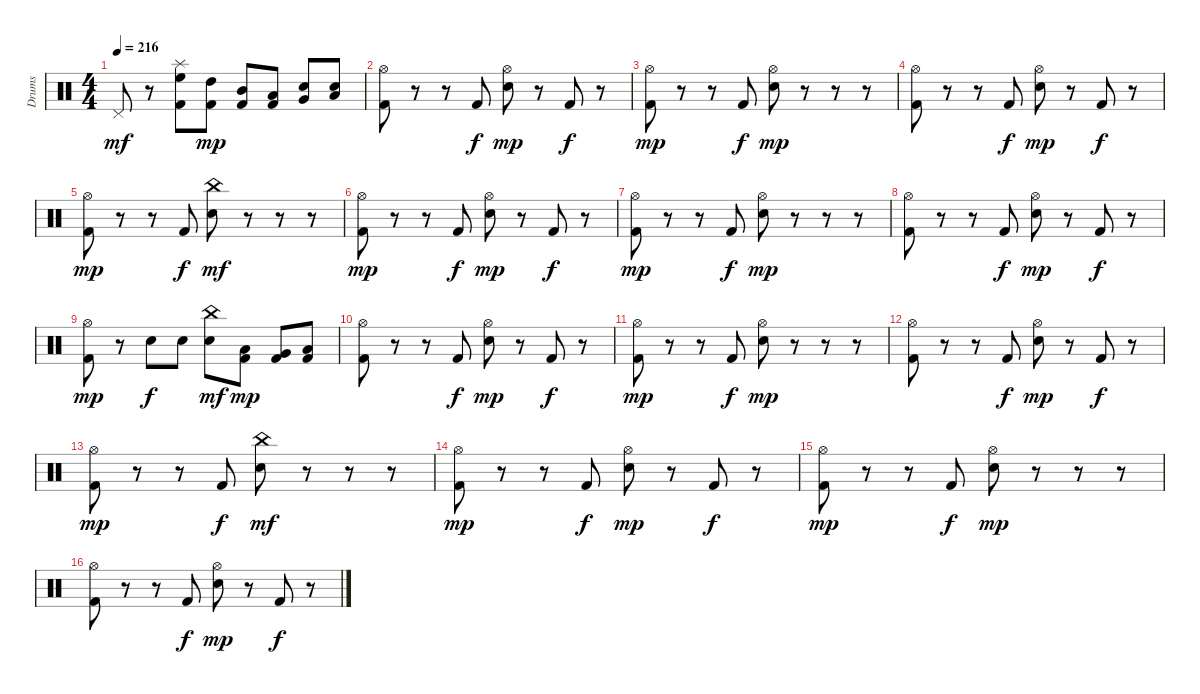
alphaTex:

\track ("Drums" "Drums") {instrument percussion}
\staff {score}
\articulation defaults
\ts (4 4)
\tempo 216
\clef neutral
\ks c "Pedal Hi-Hat (hit)".8{dy mf}
r.8 ("Kick (hit) 2" "High Floor Tom (hit)" "Splash (hit)").8 ("Kick (hit) 2" "High Tom (hit)").8{dy mp} ("Kick (hit) 2" "Mid Tom (hit)").8 ("Kick (hit) 2" "Low Tom (hit)").8 ("Snare (hit) 2" "Very Low Tom (hit)").8 ("Snare (hit) 2" "Low Floor Tom (hit)").8 |
("Kick (hit) 2" "Hi-Hat (open)").8 r.8 r.8 "Kick (hit) 2".8{dy f} ("Snare (hit) 2" "Hi-Hat (open)").8{dy mp} r.8 "Kick (hit) 2".8{dy f} r.8 |
("Kick (hit) 2" "Hi-Hat (open)").8{dy mp} r.8 r.8 "Kick (hit) 2".8{dy f} ("Snare (hit) 2" "Hi-Hat (open)").8{dy mp} r.8 r.8 r.8 |
("Kick (hit) 2" "Hi-Hat (open)").8 r.8 r.8 "Kick (hit) 2".8{dy f} ("Snare (hit) 2" "Hi-Hat (open)").8{dy mp} r.8 "Kick (hit) 2".8{dy f} r.8 |
("Kick (hit) 2" "Hi-Hat (open)").8{dy mp} r.8 r.8 "Kick (hit) 2".8{dy f} ("Snare (hit) 2" "China (hit)").8{dy mf} r.8 r.8 r.8 |
("Kick (hit) 2" "Hi-Hat (open)").8{dy mp} r.8 r.8 "Kick (hit) 2".8{dy f} ("Snare (hit) 2" "Hi-Hat (open)").8{dy mp} r.8 "Kick (hit) 2".8{dy f} r.8 |
("Kick (hit) 2" "Hi-Hat (open)").8{dy mp} r.8 r.8 "Kick (hit) 2".8{dy f} ("Snare (hit) 2" "Hi-Hat (open)").8{dy mp} r.8 r.8 r.8 |
("Kick (hit) 2" "Hi-Hat (open)").8 r.8 r.8 "Kick (hit) 2".8{dy f} ("Snare (hit) 2" "Hi-Hat (open)").8{dy mp} r.8 "Kick (hit) 2".8{dy f} r.8 |
("Kick (hit) 2" "Hi-Hat (open)").8{dy mp} r.8 "Snare (hit) 2".8{dy f} "Snare (hit) 2".8 ("Snare (hit) 2" "China (hit)").8{dy mf} ("Kick (hit) 2" "Low Tom (hit)").8{dy mp} ("Kick (hit) 2" "Very Low Tom (hit)").8 ("Kick (hit) 2" "Low Floor Tom (hit)").8 |
("Kick (hit) 2" "Hi-Hat (open)").8 r.8 r.8 "Kick (hit) 2".8{dy f} ("Snare (hit) 2" "Hi-Hat (open)").8{dy mp} r.8 "Kick (hit) 2".8{dy f} r.8 |
("Kick (hit) 2" "Hi-Hat (open)").8{dy mp} r.8 r.8 "Kick (hit) 2".8{dy f} ("Snare (hit) 2" "Hi-Hat (open)").8{dy mp} r.8 r.8 r.8 |
("Kick (hit) 2" "Hi-Hat (open)").8 r.8 r.8 "Kick (hit) 2".8{dy f} ("Snare (hit) 2" "Hi-Hat (open)").8{dy mp} r.8 "Kick (hit) 2".8{dy f} r.8 |
("Kick (hit) 2" "Hi-Hat (open)").8{dy mp} r.8 r.8 "Kick (hit) 2".8{dy f} ("Snare (hit) 2" "China (hit)").8{dy mf} r.8 r.8 r.8 |
("Kick (hit) 2" "Hi-Hat (open)").8{dy mp} r.8 r.8 "Kick (hit) 2".8{dy f} ("Snare (hit) 2" "Hi-Hat (open)").8{dy mp} r.8 "Kick (hit) 2".8{dy f} r.8 |
("Kick (hit) 2" "Hi-Hat (open)").8{dy mp} r.8 r.8 "Kick (hit) 2".8{dy f} ("Snare (hit) 2" "Hi-Hat (open)").8{dy mp} r.8 r.8 r.8 |
("Kick (hit) 2" "Hi-Hat (open)").8 r.8 r.8 "Kick (hit) 2".8{dy f} ("Snare (hit) 2" "Hi-Hat (open)").8{dy mp} r.8 "Kick (hit) 2".8{dy f} r.8
